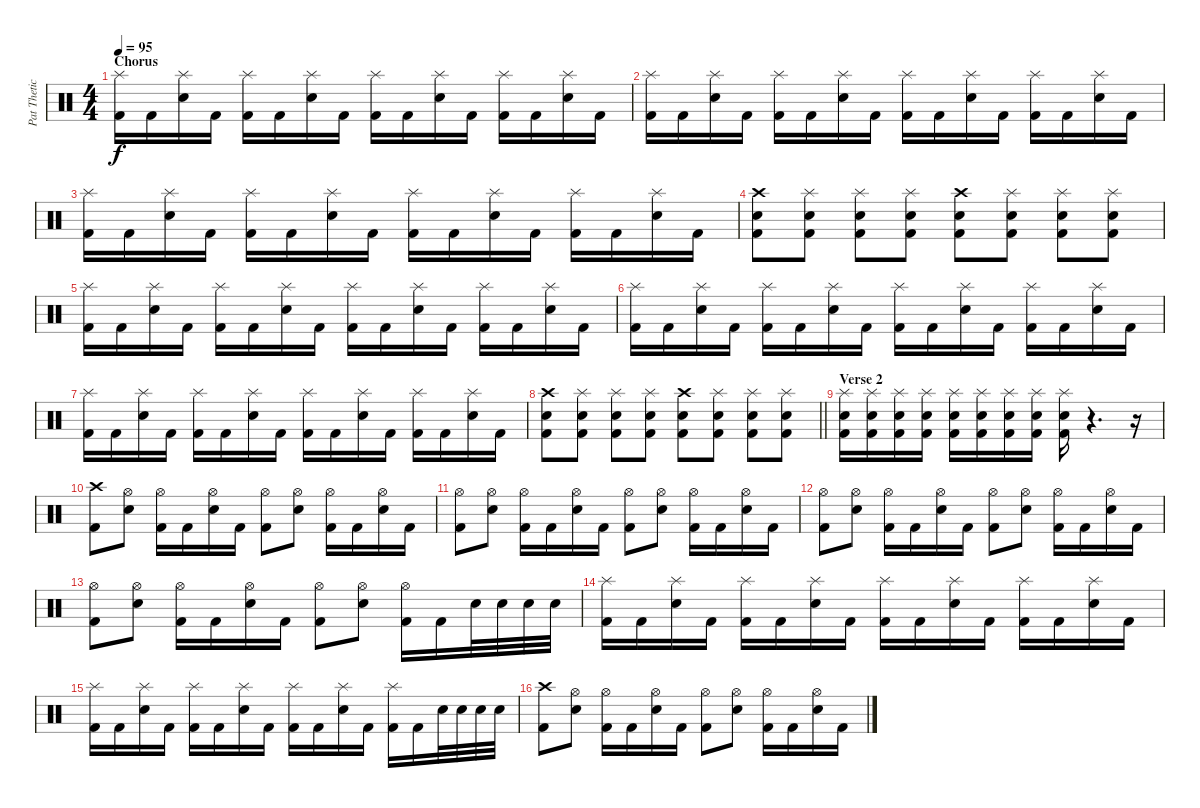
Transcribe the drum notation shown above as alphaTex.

\track ("Pat Thetic" "Pat Thetic") {instrument percussion}
\staff {score}
\articulation defaults
\ts (4 4)
\section ("" "Chorus")
\tempo 95
\clef neutral
\ks c
("Splash (hit)" "Kick (hit) 2").16{dy f} "Kick (hit) 2".16 ("Snare (hit) 2" "Splash (hit)").16 "Kick (hit) 2".16 ("Splash (hit)" "Kick (hit) 2").16 "Kick (hit) 2".16 ("Snare (hit) 2" "Splash (hit)").16 "Kick (hit) 2".16 ("Splash (hit)" "Kick (hit) 2").16 "Kick (hit) 2".16 ("Snare (hit) 2" "Splash (hit)").16 "Kick (hit) 2".16 ("Splash (hit)" "Kick (hit) 2").16 "Kick (hit) 2".16 ("Snare (hit) 2" "Splash (hit)").16 "Kick (hit) 2".16 |
("Splash (hit)" "Kick (hit) 2").16 "Kick (hit) 2".16 ("Snare (hit) 2" "Splash (hit)").16 "Kick (hit) 2".16 ("Splash (hit)" "Kick (hit) 2").16 "Kick (hit) 2".16 ("Snare (hit) 2" "Splash (hit)").16 "Kick (hit) 2".16 ("Splash (hit)" "Kick (hit) 2").16 "Kick (hit) 2".16 ("Snare (hit) 2" "Splash (hit)").16 "Kick (hit) 2".16 ("Splash (hit)" "Kick (hit) 2").16 "Kick (hit) 2".16 ("Snare (hit) 2" "Splash (hit)").16 "Kick (hit) 2".16 |
("Splash (hit)" "Kick (hit) 2").16 "Kick (hit) 2".16 ("Snare (hit) 2" "Splash (hit)").16 "Kick (hit) 2".16 ("Splash (hit)" "Kick (hit) 2").16 "Kick (hit) 2".16 ("Snare (hit) 2" "Splash (hit)").16 "Kick (hit) 2".16 ("Splash (hit)" "Kick (hit) 2").16 "Kick (hit) 2".16 ("Snare (hit) 2" "Splash (hit)").16 "Kick (hit) 2".16 ("Splash (hit)" "Kick (hit) 2").16 "Kick (hit) 2".16 ("Snare (hit) 2" "Splash (hit)").16 "Kick (hit) 2".16 |
("Kick (hit) 2" "Snare (hit) 2" "Crash high (hit)").8 ("Kick (hit) 2" "Snare (hit) 2" "Splash (hit)").8 ("Kick (hit) 2" "Snare (hit) 2" "Splash (hit)").8 ("Kick (hit) 2" "Snare (hit) 2" "Splash (hit)").8 ("Kick (hit) 2" "Snare (hit) 2" "Crash high (hit)").8 ("Kick (hit) 2" "Snare (hit) 2" "Splash (hit)").8 ("Kick (hit) 2" "Snare (hit) 2" "Splash (hit)").8 ("Kick (hit) 2" "Snare (hit) 2" "Splash (hit)").8 |
("Splash (hit)" "Kick (hit) 2").16 "Kick (hit) 2".16 ("Snare (hit) 2" "Splash (hit)").16 "Kick (hit) 2".16 ("Splash (hit)" "Kick (hit) 2").16 "Kick (hit) 2".16 ("Snare (hit) 2" "Splash (hit)").16 "Kick (hit) 2".16 ("Splash (hit)" "Kick (hit) 2").16 "Kick (hit) 2".16 ("Snare (hit) 2" "Splash (hit)").16 "Kick (hit) 2".16 ("Splash (hit)" "Kick (hit) 2").16 "Kick (hit) 2".16 ("Snare (hit) 2" "Splash (hit)").16 "Kick (hit) 2".16 |
("Splash (hit)" "Kick (hit) 2").16 "Kick (hit) 2".16 ("Snare (hit) 2" "Splash (hit)").16 "Kick (hit) 2".16 ("Splash (hit)" "Kick (hit) 2").16 "Kick (hit) 2".16 ("Snare (hit) 2" "Splash (hit)").16 "Kick (hit) 2".16 ("Splash (hit)" "Kick (hit) 2").16 "Kick (hit) 2".16 ("Snare (hit) 2" "Splash (hit)").16 "Kick (hit) 2".16 ("Splash (hit)" "Kick (hit) 2").16 "Kick (hit) 2".16 ("Snare (hit) 2" "Splash (hit)").16 "Kick (hit) 2".16 |
("Splash (hit)" "Kick (hit) 2").16 "Kick (hit) 2".16 ("Snare (hit) 2" "Splash (hit)").16 "Kick (hit) 2".16 ("Splash (hit)" "Kick (hit) 2").16 "Kick (hit) 2".16 ("Snare (hit) 2" "Splash (hit)").16 "Kick (hit) 2".16 ("Splash (hit)" "Kick (hit) 2").16 "Kick (hit) 2".16 ("Snare (hit) 2" "Splash (hit)").16 "Kick (hit) 2".16 ("Splash (hit)" "Kick (hit) 2").16 "Kick (hit) 2".16 ("Snare (hit) 2" "Splash (hit)").16 "Kick (hit) 2".16 |
\barLineRight lightlight
("Kick (hit) 2" "Snare (hit) 2" "Crash high (hit)").8 ("Kick (hit) 2" "Snare (hit) 2" "Splash (hit)").8 ("Kick (hit) 2" "Snare (hit) 2" "Splash (hit)").8 ("Kick (hit) 2" "Snare (hit) 2" "Splash (hit)").8 ("Kick (hit) 2" "Snare (hit) 2" "Crash high (hit)").8 ("Kick (hit) 2" "Snare (hit) 2" "Splash (hit)").8 ("Kick (hit) 2" "Snare (hit) 2" "Splash (hit)").8 ("Kick (hit) 2" "Snare (hit) 2" "Splash (hit)").8 |
\section ("" "Verse 2")
("Kick (hit) 2" "Snare (hit) 2" "Splash (hit)").16 ("Kick (hit) 2" "Snare (hit) 2" "Splash (hit)").16 ("Kick (hit) 2" "Snare (hit) 2" "Splash (hit)").16 ("Kick (hit) 2" "Snare (hit) 2" "Splash (hit)").16 ("Kick (hit) 2" "Snare (hit) 2" "Splash (hit)").16 ("Kick (hit) 2" "Snare (hit) 2" "Splash (hit)").16 ("Kick (hit) 2" "Snare (hit) 2" "Splash (hit)").16 ("Kick (hit) 2" "Snare (hit) 2" "Splash (hit)").16 ("Kick (hit) 2" "Snare (hit) 2" "Splash (hit)").16 r.4{d} r.16 |
("Kick (hit) 2" "Crash high (hit)").8 ("Snare (hit) 2" "Hi-Hat (open)").8 ("Kick (hit) 2" "Hi-Hat (open)").16 "Kick (hit) 2".16 ("Snare (hit) 2" "Hi-Hat (open)").16 "Kick (hit) 2".16 ("Kick (hit) 2" "Hi-Hat (open)").8 ("Snare (hit) 2" "Hi-Hat (open)").8 ("Kick (hit) 2" "Hi-Hat (open)").16 "Kick (hit) 2".16 ("Snare (hit) 2" "Hi-Hat (open)").16 "Kick (hit) 2".16 |
("Kick (hit) 2" "Hi-Hat (open)").8 ("Snare (hit) 2" "Hi-Hat (open)").8 ("Kick (hit) 2" "Hi-Hat (open)").16 "Kick (hit) 2".16 ("Snare (hit) 2" "Hi-Hat (open)").16 "Kick (hit) 2".16 ("Kick (hit) 2" "Hi-Hat (open)").8 ("Snare (hit) 2" "Hi-Hat (open)").8 ("Kick (hit) 2" "Hi-Hat (open)").16 "Kick (hit) 2".16 ("Snare (hit) 2" "Hi-Hat (open)").16 "Kick (hit) 2".16 |
("Kick (hit) 2" "Hi-Hat (open)").8 ("Snare (hit) 2" "Hi-Hat (open)").8 ("Kick (hit) 2" "Hi-Hat (open)").16 "Kick (hit) 2".16 ("Snare (hit) 2" "Hi-Hat (open)").16 "Kick (hit) 2".16 ("Kick (hit) 2" "Hi-Hat (open)").8 ("Snare (hit) 2" "Hi-Hat (open)").8 ("Kick (hit) 2" "Hi-Hat (open)").16 "Kick (hit) 2".16 ("Snare (hit) 2" "Hi-Hat (open)").16 "Kick (hit) 2".16 |
("Kick (hit) 2" "Hi-Hat (open)").8 ("Snare (hit) 2" "Hi-Hat (open)").8 ("Kick (hit) 2" "Hi-Hat (open)").16 "Kick (hit) 2".16 ("Snare (hit) 2" "Hi-Hat (open)").16 "Kick (hit) 2".16 ("Kick (hit) 2" "Hi-Hat (open)").8 ("Snare (hit) 2" "Hi-Hat (open)").8 ("Kick (hit) 2" "Hi-Hat (open)").16 "Kick (hit) 2".16 "Snare (hit) 2".32 "Snare (hit) 2".32 "Snare (hit) 2".32 "Snare (hit) 2".32 |
("Kick (hit) 2" "Splash (hit)").16 "Kick (hit) 2".16 ("Snare (hit) 2" "Splash (hit)").16 "Kick (hit) 2".16 ("Kick (hit) 2" "Splash (hit)").16 "Kick (hit) 2".16 ("Snare (hit) 2" "Splash (hit)").16 "Kick (hit) 2".16 ("Kick (hit) 2" "Splash (hit)").16 "Kick (hit) 2".16 ("Snare (hit) 2" "Splash (hit)").16 "Kick (hit) 2".16 ("Kick (hit) 2" "Splash (hit)").16 "Kick (hit) 2".16 ("Snare (hit) 2" "Splash (hit)").16 "Kick (hit) 2".16 |
("Kick (hit) 2" "Splash (hit)").16 "Kick (hit) 2".16 ("Snare (hit) 2" "Splash (hit)").16 "Kick (hit) 2".16 ("Kick (hit) 2" "Splash (hit)").16 "Kick (hit) 2".16 ("Snare (hit) 2" "Splash (hit)").16 "Kick (hit) 2".16 ("Kick (hit) 2" "Splash (hit)").16 "Kick (hit) 2".16 ("Snare (hit) 2" "Splash (hit)").16 "Kick (hit) 2".16 ("Kick (hit) 2" "Splash (hit)").16 "Kick (hit) 2".16 "Snare (hit) 2".32 "Snare (hit) 2".32 "Snare (hit) 2".32 "Snare (hit) 2".32 |
("Kick (hit) 2" "Crash high (hit)").8 ("Snare (hit) 2" "Hi-Hat (open)").8 ("Kick (hit) 2" "Hi-Hat (open)").16 "Kick (hit) 2".16 ("Snare (hit) 2" "Hi-Hat (open)").16 "Kick (hit) 2".16 ("Kick (hit) 2" "Hi-Hat (open)").8 ("Snare (hit) 2" "Hi-Hat (open)").8 ("Kick (hit) 2" "Hi-Hat (open)").16 "Kick (hit) 2".16 ("Snare (hit) 2" "Hi-Hat (open)").16 "Kick (hit) 2".16
